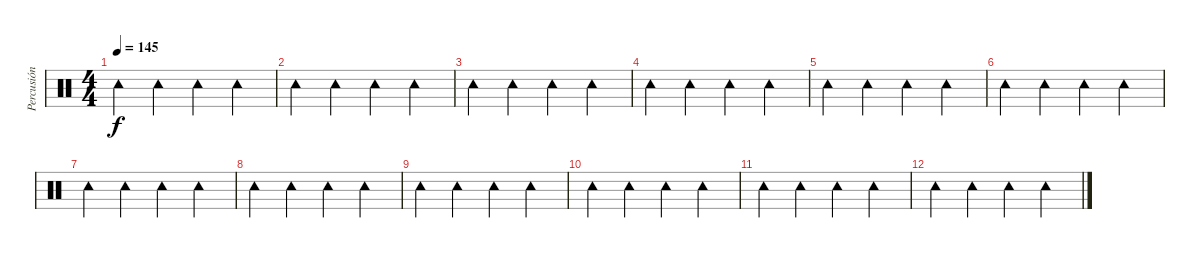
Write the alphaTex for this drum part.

\track ("Percusión" "Percusión") {instrument percussion}
\staff {score}
\articulation defaults
\ts (4 4)
\tempo 145
\clef neutral
\ks c "Tambourine (hit)".4{dy f} "Tambourine (hit)".4 "Tambourine (hit)".4 "Tambourine (hit)".4
|
"Tambourine (hit)".4 "Tambourine (hit)".4 "Tambourine (hit)".4 "Tambourine (hit)".4 |
"Tambourine (hit)".4 "Tambourine (hit)".4 "Tambourine (hit)".4 "Tambourine (hit)".4 |
"Tambourine (hit)".4 "Tambourine (hit)".4 "Tambourine (hit)".4 "Tambourine (hit)".4 |
"Tambourine (hit)".4 "Tambourine (hit)".4 "Tambourine (hit)".4 "Tambourine (hit)".4 |
"Tambourine (hit)".4 "Tambourine (hit)".4 "Tambourine (hit)".4 "Tambourine (hit)".4 |
"Tambourine (hit)".4 "Tambourine (hit)".4 "Tambourine (hit)".4 "Tambourine (hit)".4 |
"Tambourine (hit)".4 "Tambourine (hit)".4 "Tambourine (hit)".4 "Tambourine (hit)".4 |
"Tambourine (hit)".4 "Tambourine (hit)".4 "Tambourine (hit)".4 "Tambourine (hit)".4 |
"Tambourine (hit)".4 "Tambourine (hit)".4 "Tambourine (hit)".4 "Tambourine (hit)".4 |
"Tambourine (hit)".4 "Tambourine (hit)".4 "Tambourine (hit)".4 "Tambourine (hit)".4 |
"Tambourine (hit)".4 "Tambourine (hit)".4 "Tambourine (hit)".4 "Tambourine (hit)".4
